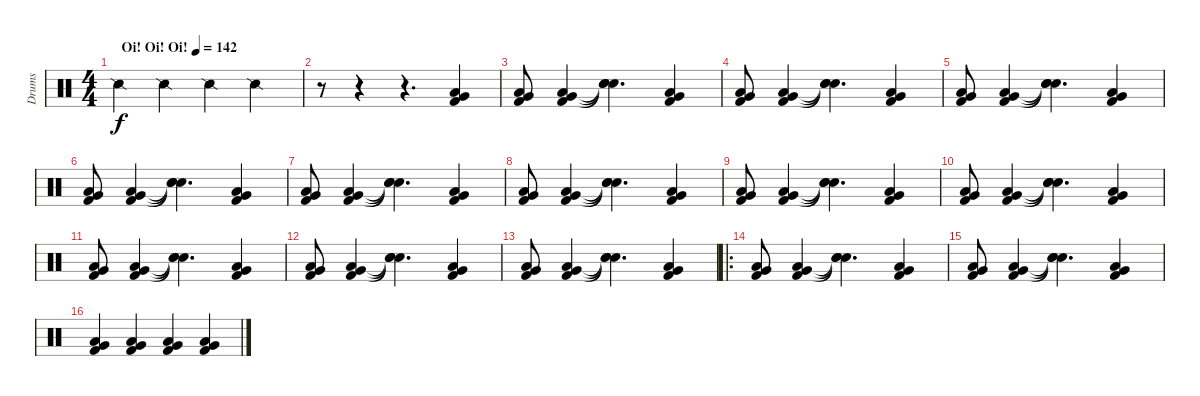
\track ("Drums" "Drums") {instrument percussion}
\staff {score}
\articulation defaults
\ts (4 4)
\tempo (142 "Oi! Oi! Oi!")
\clef neutral
\ks c "Snare (side stick) 2".4{dy f} "Snare (side stick) 2".4 "Snare (side stick) 2".4 "Snare (side stick) 2".4
|
r.8 r.4 r.4{d} ("Low Tom (hit)" "Very Low Tom (hit)" "Kick (hit) 2").4 |
("Low Tom (hit)" "Very Low Tom (hit)" "Kick (hit) 2").8 ("Low Tom (hit)" "Very Low Tom (hit)" "Kick (hit) 2").4 ("Snare (hit)"{t} "Snare (hit)"{t} "Snare (hit)"{t}).4{d} ("Low Tom (hit)" "Very Low Tom (hit)" "Kick (hit) 2").4 |
("Low Tom (hit)" "Very Low Tom (hit)" "Kick (hit) 2").8 ("Low Tom (hit)" "Very Low Tom (hit)" "Kick (hit) 2").4 ("Snare (hit)"{t} "Snare (hit)"{t} "Snare (hit)"{t}).4{d} ("Low Tom (hit)" "Very Low Tom (hit)" "Kick (hit) 2").4 |
("Low Tom (hit)" "Very Low Tom (hit)" "Kick (hit) 2").8 ("Low Tom (hit)" "Very Low Tom (hit)" "Kick (hit) 2").4 ("Snare (hit)"{t} "Snare (hit)"{t} "Snare (hit)"{t}).4{d} ("Low Tom (hit)" "Very Low Tom (hit)" "Kick (hit) 2").4 |
("Low Tom (hit)" "Very Low Tom (hit)" "Kick (hit) 2").8 ("Low Tom (hit)" "Very Low Tom (hit)" "Kick (hit) 2").4 ("Snare (hit)"{t} "Snare (hit)"{t} "Snare (hit)"{t}).4{d} ("Low Tom (hit)" "Very Low Tom (hit)" "Kick (hit) 2").4 |
("Low Tom (hit)" "Very Low Tom (hit)" "Kick (hit) 2").8 ("Low Tom (hit)" "Very Low Tom (hit)" "Kick (hit) 2").4 ("Snare (hit)"{t} "Snare (hit)"{t} "Snare (hit)"{t}).4{d} ("Low Tom (hit)" "Very Low Tom (hit)" "Kick (hit) 2").4 |
("Low Tom (hit)" "Very Low Tom (hit)" "Kick (hit) 2").8 ("Low Tom (hit)" "Very Low Tom (hit)" "Kick (hit) 2").4 ("Snare (hit)"{t} "Snare (hit)"{t} "Snare (hit)"{t}).4{d} ("Low Tom (hit)" "Very Low Tom (hit)" "Kick (hit) 2").4 |
("Low Tom (hit)" "Very Low Tom (hit)" "Kick (hit) 2").8 ("Low Tom (hit)" "Very Low Tom (hit)" "Kick (hit) 2").4 ("Snare (hit)"{t} "Snare (hit)"{t} "Snare (hit)"{t}).4{d} ("Low Tom (hit)" "Very Low Tom (hit)" "Kick (hit) 2").4 |
("Low Tom (hit)" "Very Low Tom (hit)" "Kick (hit) 2").8 ("Low Tom (hit)" "Very Low Tom (hit)" "Kick (hit) 2").4 ("Snare (hit)"{t} "Snare (hit)"{t} "Snare (hit)"{t}).4{d} ("Low Tom (hit)" "Very Low Tom (hit)" "Kick (hit) 2").4 |
("Low Tom (hit)" "Very Low Tom (hit)" "Kick (hit) 2").8 ("Low Tom (hit)" "Very Low Tom (hit)" "Kick (hit) 2").4 ("Snare (hit)"{t} "Snare (hit)"{t} "Snare (hit)"{t}).4{d} ("Low Tom (hit)" "Very Low Tom (hit)" "Kick (hit) 2").4 |
("Low Tom (hit)" "Very Low Tom (hit)" "Kick (hit) 2").8 ("Low Tom (hit)" "Very Low Tom (hit)" "Kick (hit) 2").4 ("Snare (hit)"{t} "Snare (hit)"{t} "Snare (hit)"{t}).4{d} ("Low Tom (hit)" "Very Low Tom (hit)" "Kick (hit) 2").4 |
("Low Tom (hit)" "Very Low Tom (hit)" "Kick (hit) 2").8 ("Low Tom (hit)" "Very Low Tom (hit)" "Kick (hit) 2").4 ("Snare (hit)"{t} "Snare (hit)"{t} "Snare (hit)"{t}).4{d} ("Low Tom (hit)" "Very Low Tom (hit)" "Kick (hit) 2").4 |
\ro
("Low Tom (hit)" "Very Low Tom (hit)" "Kick (hit) 2").8 ("Low Tom (hit)" "Very Low Tom (hit)" "Kick (hit) 2").4 ("Snare (hit)"{t} "Snare (hit)"{t} "Snare (hit)"{t}).4{d} ("Low Tom (hit)" "Very Low Tom (hit)" "Kick (hit) 2").4 |
("Low Tom (hit)" "Very Low Tom (hit)" "Kick (hit) 2").8 ("Low Tom (hit)" "Very Low Tom (hit)" "Kick (hit) 2").4 ("Snare (hit)"{t} "Snare (hit)"{t} "Snare (hit)"{t}).4{d} ("Low Tom (hit)" "Very Low Tom (hit)" "Kick (hit) 2").4 |
("Low Tom (hit)" "Very Low Tom (hit)" "Kick (hit) 2").4 ("Low Tom (hit)" "Very Low Tom (hit)" "Kick (hit) 2").4 ("Low Tom (hit)" "Very Low Tom (hit)" "Kick (hit) 2").4 ("Low Tom (hit)" "Very Low Tom (hit)" "Kick (hit) 2").4
